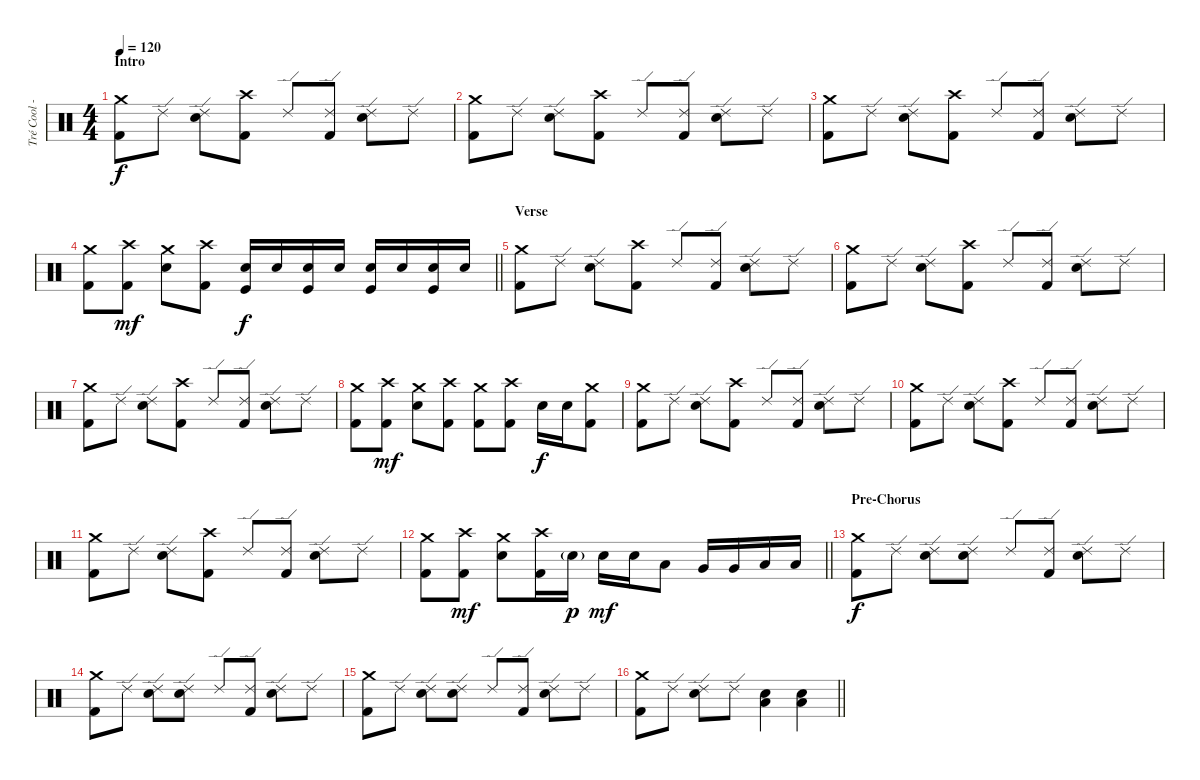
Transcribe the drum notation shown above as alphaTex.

\track ("Tré Cool - Drums" "Tré Cool -") {instrument percussion}
\staff {score}
\articulation defaults
\ts (4 4)
\section ("" "Intro")
\tempo 120
\clef neutral
\ks c
("Crash medium (hit)" "Kick (hit) 2").8{dy f} "Ride (edge) 2".8 ("Ride (edge) 2" "Electric Snare (hit)").8 ("Crash high (hit)" "Kick (hit) 2").8 "Ride (edge) 2".8 ("Ride (edge) 2" "Kick (hit) 2").8 ("Ride (edge) 2" "Electric Snare (hit)").8 "Ride (edge) 2".8 |
("Crash medium (hit)" "Kick (hit) 2").8 "Ride (edge) 2".8 ("Ride (edge) 2" "Electric Snare (hit)").8 ("Crash high (hit)" "Kick (hit) 2").8 "Ride (edge) 2".8 ("Ride (edge) 2" "Kick (hit) 2").8 ("Ride (edge) 2" "Electric Snare (hit)").8 "Ride (edge) 2".8 |
("Crash medium (hit)" "Kick (hit) 2").8 "Ride (edge) 2".8 ("Ride (edge) 2" "Electric Snare (hit)").8 ("Crash high (hit)" "Kick (hit) 2").8 "Ride (edge) 2".8 ("Ride (edge) 2" "Kick (hit) 2").8 ("Ride (edge) 2" "Electric Snare (hit)").8 "Ride (edge) 2".8 |
\barLineRight lightlight
("Crash medium (hit)" "Kick (hit) 2").8 ("Crash high (hit)" "Kick (hit) 2").8{dy mf} ("Crash medium (hit)" "Electric Snare (hit)").8 ("Crash high (hit)" "Kick (hit) 2").8 ("Electric Snare (hit)" "Kick (hit)").16{dy f} "Electric Snare (hit)".16 ("Electric Snare (hit)" "Kick (hit)").16 "Electric Snare (hit)".16 ("Electric Snare (hit)" "Kick (hit)").16 "Electric Snare (hit)".16 ("Electric Snare (hit)" "Kick (hit)").16 "Electric Snare (hit)".16 |
\section ("" "Verse")
("Crash medium (hit)" "Kick (hit) 2").8 "Ride (edge) 2".8 ("Ride (edge) 2" "Electric Snare (hit)").8 ("Crash high (hit)" "Kick (hit) 2").8 "Ride (edge) 2".8 ("Ride (edge) 2" "Kick (hit) 2").8 ("Ride (edge) 2" "Electric Snare (hit)").8 "Ride (edge) 2".8 |
("Crash medium (hit)" "Kick (hit) 2").8 "Ride (edge) 2".8 ("Ride (edge) 2" "Electric Snare (hit)").8 ("Crash high (hit)" "Kick (hit) 2").8 "Ride (edge) 2".8 ("Ride (edge) 2" "Kick (hit) 2").8 ("Ride (edge) 2" "Electric Snare (hit)").8 "Ride (edge) 2".8 |
("Crash medium (hit)" "Kick (hit) 2").8 "Ride (edge) 2".8 ("Ride (edge) 2" "Electric Snare (hit)").8 ("Crash high (hit)" "Kick (hit) 2").8 "Ride (edge) 2".8 ("Ride (edge) 2" "Kick (hit) 2").8 ("Ride (edge) 2" "Electric Snare (hit)").8 "Ride (edge) 2".8 |
("Crash medium (hit)" "Kick (hit) 2").8 ("Crash high (hit)" "Kick (hit) 2").8{dy mf} ("Crash medium (hit)" "Electric Snare (hit)").8 ("Crash high (hit)" "Kick (hit) 2").8 ("Crash medium (hit)" "Kick (hit) 2").8 ("Crash high (hit)" "Kick (hit) 2").8 "Electric Snare (hit)".16{dy f} "Electric Snare (hit)".16 ("Crash medium (hit)" "Kick (hit) 2").8 |
("Crash medium (hit)" "Kick (hit) 2").8 "Ride (edge) 2".8 ("Ride (edge) 2" "Electric Snare (hit)").8 ("Crash high (hit)" "Kick (hit) 2").8 "Ride (edge) 2".8 ("Ride (edge) 2" "Kick (hit) 2").8 ("Ride (edge) 2" "Electric Snare (hit)").8 "Ride (edge) 2".8 |
("Crash medium (hit)" "Kick (hit) 2").8 "Ride (edge) 2".8 ("Ride (edge) 2" "Electric Snare (hit)").8 ("Crash high (hit)" "Kick (hit) 2").8 "Ride (edge) 2".8 ("Ride (edge) 2" "Kick (hit) 2").8 ("Ride (edge) 2" "Electric Snare (hit)").8 "Ride (edge) 2".8 |
("Crash medium (hit)" "Kick (hit) 2").8 "Ride (edge) 2".8 ("Ride (edge) 2" "Electric Snare (hit)").8 ("Crash high (hit)" "Kick (hit) 2").8 "Ride (edge) 2".8 ("Ride (edge) 2" "Kick (hit) 2").8 ("Ride (edge) 2" "Electric Snare (hit)").8 "Ride (edge) 2".8 |
\barLineRight lightlight
("Crash medium (hit)" "Kick (hit) 2").8 ("Crash high (hit)" "Kick (hit) 2").8{dy mf} ("Crash medium (hit)" "Electric Snare (hit)").8 ("Crash high (hit)" "Kick (hit) 2").16 "Electric Snare (hit)"{g}.16{dy p} "Electric Snare (hit)".16{dy mf} "Electric Snare (hit)".16 "Low Tom (hit)".8 "Very Low Tom (hit)".16 "Very Low Tom (hit)".16 "Low Floor Tom (hit)".16 "Low Floor Tom (hit)".16 |
\section ("" "Pre-Chorus")
("Crash medium (hit)" "Kick (hit) 2").8{dy f} "Ride (edge) 2".8 ("Ride (edge) 2" "Electric Snare (hit)").8 ("Ride (edge) 2" "Electric Snare (hit)").8 "Ride (edge) 2".8 ("Ride (edge) 2" "Kick (hit) 2").8 ("Ride (edge) 2" "Electric Snare (hit)").8 "Ride (edge) 2".8 |
("Crash medium (hit)" "Kick (hit) 2").8 "Ride (edge) 2".8 ("Ride (edge) 2" "Electric Snare (hit)").8 ("Ride (edge) 2" "Electric Snare (hit)").8 "Ride (edge) 2".8 ("Ride (edge) 2" "Kick (hit) 2").8 ("Ride (edge) 2" "Electric Snare (hit)").8 "Ride (edge) 2".8 |
("Crash medium (hit)" "Kick (hit) 2").8 "Ride (edge) 2".8 ("Ride (edge) 2" "Electric Snare (hit)").8 ("Ride (edge) 2" "Electric Snare (hit)").8 "Ride (edge) 2".8 ("Ride (edge) 2" "Kick (hit) 2").8 ("Ride (edge) 2" "Electric Snare (hit)").8 "Ride (edge) 2".8 |
\barLineRight lightlight
("Crash medium (hit)" "Kick (hit) 2").8 "Ride (edge) 2".8 ("Ride (edge) 2" "Electric Snare (hit)").8 "Ride (edge) 2".8 ("Electric Snare (hit)" "Low Floor Tom (hit)").4 ("Electric Snare (hit)" "Low Floor Tom (hit)").4
